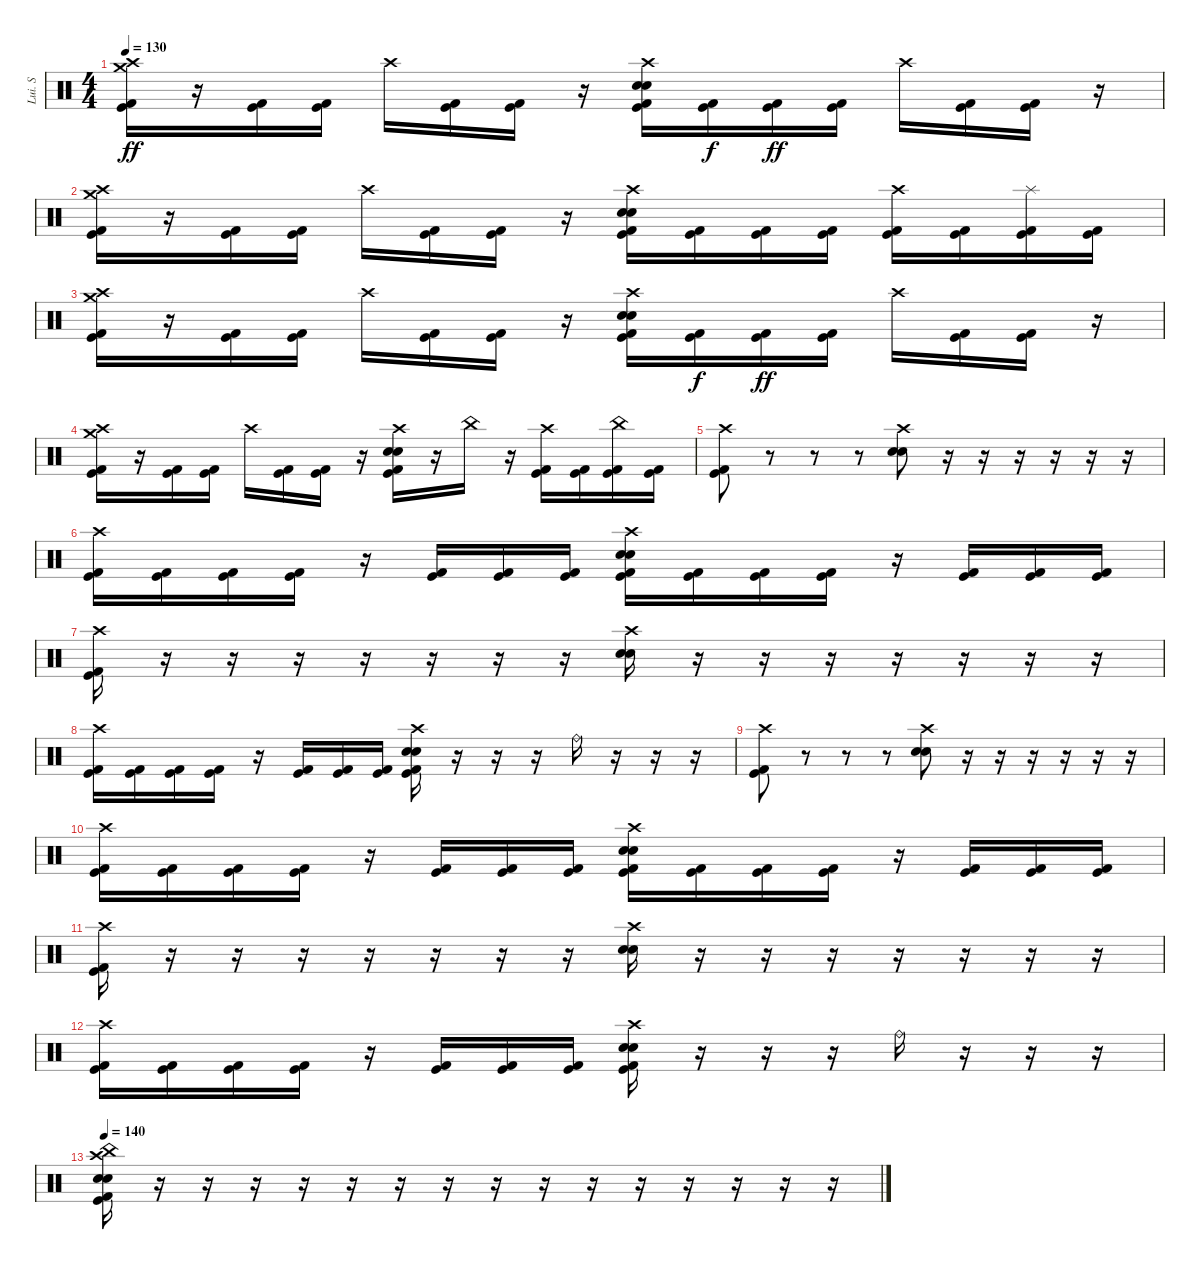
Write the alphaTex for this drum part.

\track ("Lui. S" "Lui. S") {instrument percussion}
\staff {score}
\articulation defaults
\ts (4 4)
\tempo 130
\clef neutral
\ks c
("Crash high (hit)" "Crash medium (hit)" "Kick (hit)" "Kick (hit) 2").16{dy ff} r.16 ("Kick (hit)" "Kick (hit) 2").16 ("Kick (hit)" "Kick (hit) 2").16 "Crash high (hit)".16 ("Kick (hit)" "Kick (hit) 2").16 ("Kick (hit)" "Kick (hit) 2").16 r.16 ("Crash high (hit)" "Snare (hit) 2" "Electric Snare (hit)" "Kick (hit)" "Kick (hit) 2").16 ("Kick (hit)" "Kick (hit) 2").16{dy f} ("Kick (hit)" "Kick (hit) 2").16{dy ff} ("Kick (hit)" "Kick (hit) 2").16 "Crash high (hit)".16 ("Kick (hit)" "Kick (hit) 2").16 ("Kick (hit)" "Kick (hit) 2").16 r.16 |
("Crash high (hit)" "Crash medium (hit)" "Kick (hit)" "Kick (hit) 2").16 r.16 ("Kick (hit)" "Kick (hit) 2").16 ("Kick (hit)" "Kick (hit) 2").16 "Crash high (hit)".16 ("Kick (hit)" "Kick (hit) 2").16 ("Kick (hit)" "Kick (hit) 2").16 r.16 ("Crash high (hit)" "Electric Snare (hit)" "Snare (hit) 2" "Kick (hit)" "Kick (hit) 2").16 ("Kick (hit)" "Kick (hit) 2").16 ("Kick (hit)" "Kick (hit) 2").16 ("Kick (hit)" "Kick (hit) 2").16 ("Crash high (hit)" "Kick (hit)" "Kick (hit) 2").16 ("Kick (hit)" "Kick (hit) 2").16 ("Splash (hit)" "Kick (hit)" "Kick (hit) 2").16 ("Kick (hit)" "Kick (hit) 2").16 |
("Crash high (hit)" "Crash medium (hit)" "Kick (hit)" "Kick (hit) 2").16 r.16 ("Kick (hit)" "Kick (hit) 2").16 ("Kick (hit)" "Kick (hit) 2").16 "Crash high (hit)".16 ("Kick (hit)" "Kick (hit) 2").16 ("Kick (hit)" "Kick (hit) 2").16 r.16 ("Crash high (hit)" "Electric Snare (hit)" "Snare (hit) 2" "Kick (hit)" "Kick (hit) 2").16 ("Kick (hit)" "Kick (hit) 2").16{dy f} ("Kick (hit)" "Kick (hit) 2").16{dy ff} ("Kick (hit)" "Kick (hit) 2").16 "Crash high (hit)".16 ("Kick (hit)" "Kick (hit) 2").16 ("Kick (hit)" "Kick (hit) 2").16 r.16 |
("Crash high (hit)" "Crash medium (hit)" "Kick (hit)" "Kick (hit) 2").16 r.16 ("Kick (hit)" "Kick (hit) 2").16 ("Kick (hit)" "Kick (hit) 2").16 "Crash high (hit)".16 ("Kick (hit)" "Kick (hit) 2").16 ("Kick (hit)" "Kick (hit) 2").16 r.16 ("Crash high (hit)" "Electric Snare (hit)" "Snare (hit) 2" "Kick (hit)" "Kick (hit) 2").16 r.16 "China (hit)".16 r.16 ("Crash high (hit)" "Kick (hit)" "Kick (hit) 2").16 ("Kick (hit)" "Kick (hit) 2").16 ("China (hit)" "Kick (hit)" "Kick (hit) 2").16 ("Kick (hit)" "Kick (hit) 2").16 |
("Crash high (hit)" "Kick (hit)" "Kick (hit) 2").8 r.8 r.8 r.8 ("Crash high (hit)" "Electric Snare (hit)" "Snare (hit) 2").8 r.16 r.16 r.16 r.16 r.16 r.16 |
("Crash high (hit)" "Kick (hit)" "Kick (hit) 2").16 ("Kick (hit)" "Kick (hit) 2").16 ("Kick (hit)" "Kick (hit) 2").16 ("Kick (hit)" "Kick (hit) 2").16 r.16 ("Kick (hit)" "Kick (hit) 2").16 ("Kick (hit)" "Kick (hit) 2").16 ("Kick (hit)" "Kick (hit) 2").16 ("Crash high (hit)" "Electric Snare (hit)" "Snare (hit) 2" "Kick (hit)" "Kick (hit) 2").16 ("Kick (hit)" "Kick (hit) 2").16 ("Kick (hit)" "Kick (hit) 2").16 ("Kick (hit)" "Kick (hit) 2").16 r.16 ("Kick (hit)" "Kick (hit) 2").16 ("Kick (hit)" "Kick (hit) 2").16 ("Kick (hit)" "Kick (hit) 2").16 |
("Crash high (hit)" "Kick (hit) 2" "Kick (hit)").16 r.16 r.16 r.16 r.16 r.16 r.16 r.16 ("Crash high (hit)" "Electric Snare (hit)" "Snare (hit) 2").16 r.16 r.16 r.16 r.16 r.16 r.16 r.16 |
("Crash high (hit)" "Kick (hit)" "Kick (hit) 2").16 ("Kick (hit)" "Kick (hit) 2").16 ("Kick (hit)" "Kick (hit) 2").16 ("Kick (hit)" "Kick (hit) 2").16 r.16 ("Kick (hit)" "Kick (hit) 2").16 ("Kick (hit)" "Kick (hit) 2").16 ("Kick (hit)" "Kick (hit) 2").16 ("Crash high (hit)" "Electric Snare (hit)" "Snare (hit) 2" "Kick (hit)" "Kick (hit) 2").16 r.16 r.16 r.16 "Ride (bell)".16 r.16 r.16 r.16 |
("Crash high (hit)" "Kick (hit)" "Kick (hit) 2").8 r.8 r.8 r.8 ("Crash high (hit)" "Electric Snare (hit)" "Snare (hit) 2").8 r.16 r.16 r.16 r.16 r.16 r.16 |
("Crash high (hit)" "Kick (hit)" "Kick (hit) 2").16 ("Kick (hit)" "Kick (hit) 2").16 ("Kick (hit)" "Kick (hit) 2").16 ("Kick (hit)" "Kick (hit) 2").16 r.16 ("Kick (hit)" "Kick (hit) 2").16 ("Kick (hit)" "Kick (hit) 2").16 ("Kick (hit)" "Kick (hit) 2").16 ("Crash high (hit)" "Electric Snare (hit)" "Snare (hit) 2" "Kick (hit)" "Kick (hit) 2").16 ("Kick (hit)" "Kick (hit) 2").16 ("Kick (hit)" "Kick (hit) 2").16 ("Kick (hit)" "Kick (hit) 2").16 r.16 ("Kick (hit)" "Kick (hit) 2").16 ("Kick (hit)" "Kick (hit) 2").16 ("Kick (hit)" "Kick (hit) 2").16 |
("Crash high (hit)" "Kick (hit) 2" "Kick (hit)").16 r.16 r.16 r.16 r.16 r.16 r.16 r.16 ("Crash high (hit)" "Electric Snare (hit)" "Snare (hit) 2").16 r.16 r.16 r.16 r.16 r.16 r.16 r.16 |
("Crash high (hit)" "Kick (hit)" "Kick (hit) 2").16 ("Kick (hit)" "Kick (hit) 2").16 ("Kick (hit)" "Kick (hit) 2").16 ("Kick (hit)" "Kick (hit) 2").16 r.16 ("Kick (hit)" "Kick (hit) 2").16 ("Kick (hit)" "Kick (hit) 2").16 ("Kick (hit)" "Kick (hit) 2").16 ("Crash high (hit)" "Electric Snare (hit)" "Snare (hit) 2" "Kick (hit)" "Kick (hit) 2").16 r.16 r.16 r.16 "Ride (bell)".16 r.16 r.16 r.16 |
\tempo 140
("Kick (hit)" "Kick (hit) 2" "China (hit)" "Electric Snare (hit)" "Snare (hit) 2" "Crash high (hit)").16 r.16 r.16{volume 0} r.16 r.16 r.16 r.16 r.16 r.16 r.16 r.16 r.16 r.16 r.16 r.16 r.16
